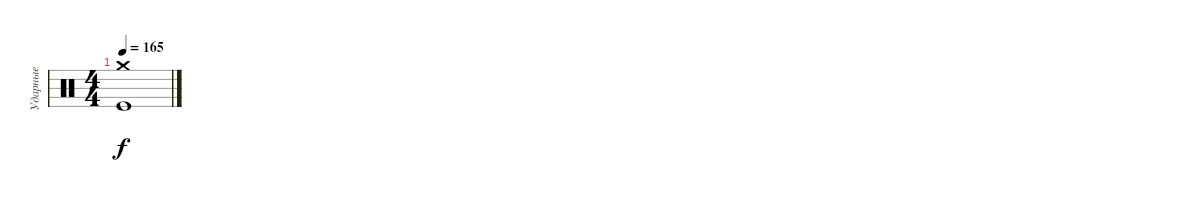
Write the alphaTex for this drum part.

\track ("Ударные" "Ударные") {instrument percussion}
\staff {score}
\articulation defaults
\ts (4 4)
\tempo 165
\clef neutral
\ks c
("Crash medium (hit)" "Kick (hit)").1{dy f}
